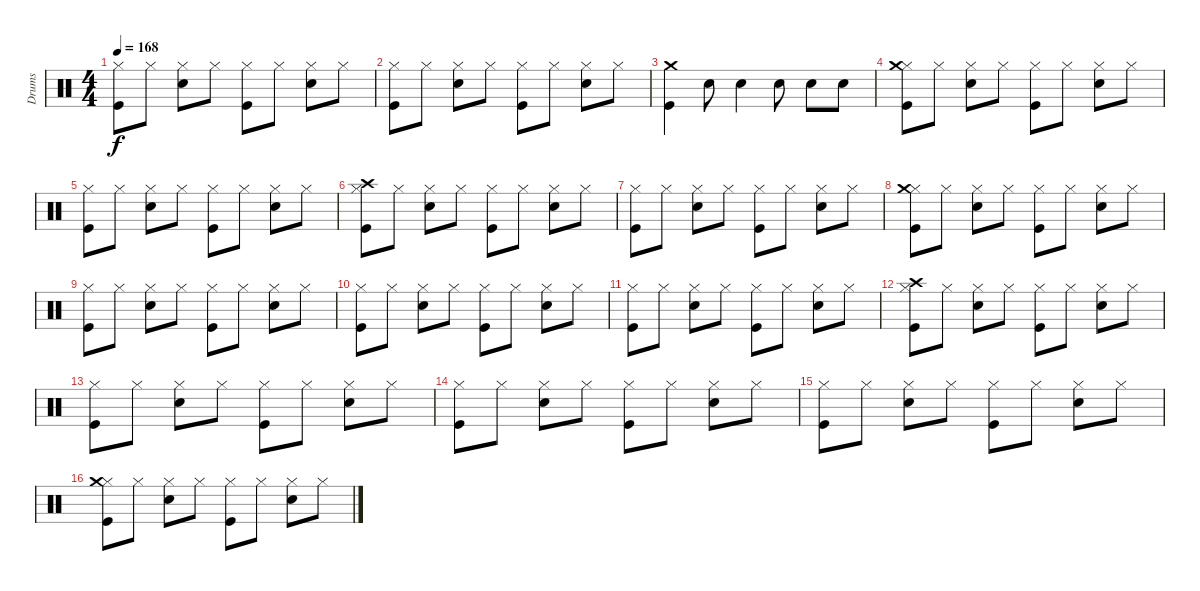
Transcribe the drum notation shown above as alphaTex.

\track ("Drums" "Drums") {instrument percussion}
\staff {score}
\articulation defaults
\ts (4 4)
\tempo 168
\clef neutral
\ks c
("Kick (hit)" "Hi-Hat (closed)").8{dy f} "Hi-Hat (closed)".8 ("Snare (hit) 2" "Hi-Hat (closed)").8 "Hi-Hat (closed)".8 ("Kick (hit)" "Hi-Hat (closed)").8 "Hi-Hat (closed)".8 ("Snare (hit) 2" "Hi-Hat (closed)").8 "Hi-Hat (closed)".8 |
("Kick (hit)" "Hi-Hat (closed)").8 "Hi-Hat (closed)".8 ("Snare (hit) 2" "Hi-Hat (closed)").8 "Hi-Hat (closed)".8 ("Kick (hit)" "Hi-Hat (closed)").8 "Hi-Hat (closed)".8 ("Snare (hit) 2" "Hi-Hat (closed)").8 "Hi-Hat (closed)".8 |
("Kick (hit)" "Crash medium (hit)").4 "Snare (hit) 2".8 "Snare (hit) 2".4 "Snare (hit) 2".8 "Snare (hit) 2".8 "Snare (hit) 2".8 |
("Kick (hit)" "Hi-Hat (closed)" "Crash medium (hit)").8 "Hi-Hat (closed)".8 ("Snare (hit) 2" "Hi-Hat (closed)").8 "Hi-Hat (closed)".8 ("Kick (hit)" "Hi-Hat (closed)").8 "Hi-Hat (closed)".8 ("Snare (hit) 2" "Hi-Hat (closed)").8 "Hi-Hat (closed)".8 |
("Kick (hit)" "Hi-Hat (closed)").8 "Hi-Hat (closed)".8 ("Snare (hit) 2" "Hi-Hat (closed)").8 "Hi-Hat (closed)".8 ("Kick (hit)" "Hi-Hat (closed)").8 "Hi-Hat (closed)".8 ("Snare (hit) 2" "Hi-Hat (closed)").8 "Hi-Hat (closed)".8 |
("Kick (hit)" "Hi-Hat (closed)" "Crash high (hit)").8 "Hi-Hat (closed)".8 ("Snare (hit) 2" "Hi-Hat (closed)").8 "Hi-Hat (closed)".8 ("Kick (hit)" "Hi-Hat (closed)").8 "Hi-Hat (closed)".8 ("Snare (hit) 2" "Hi-Hat (closed)").8 "Hi-Hat (closed)".8 |
("Kick (hit)" "Hi-Hat (closed)").8 "Hi-Hat (closed)".8 ("Snare (hit) 2" "Hi-Hat (closed)").8 "Hi-Hat (closed)".8 ("Kick (hit)" "Hi-Hat (closed)").8 "Hi-Hat (closed)".8 ("Snare (hit) 2" "Hi-Hat (closed)").8 "Hi-Hat (closed)".8 |
("Kick (hit)" "Hi-Hat (closed)" "Crash medium (hit)").8 "Hi-Hat (closed)".8 ("Snare (hit) 2" "Hi-Hat (closed)").8 "Hi-Hat (closed)".8 ("Kick (hit)" "Hi-Hat (closed)").8 "Hi-Hat (closed)".8 ("Snare (hit) 2" "Hi-Hat (closed)").8 "Hi-Hat (closed)".8 |
("Kick (hit)" "Hi-Hat (closed)").8 "Hi-Hat (closed)".8 ("Snare (hit) 2" "Hi-Hat (closed)").8 "Hi-Hat (closed)".8 ("Kick (hit)" "Hi-Hat (closed)").8 "Hi-Hat (closed)".8 ("Snare (hit) 2" "Hi-Hat (closed)").8 "Hi-Hat (closed)".8 |
("Kick (hit)" "Hi-Hat (closed)").8 "Hi-Hat (closed)".8 ("Snare (hit) 2" "Hi-Hat (closed)").8 "Hi-Hat (closed)".8 ("Kick (hit)" "Hi-Hat (closed)").8 "Hi-Hat (closed)".8 ("Snare (hit) 2" "Hi-Hat (closed)").8 "Hi-Hat (closed)".8 |
("Kick (hit)" "Hi-Hat (closed)").8 "Hi-Hat (closed)".8 ("Snare (hit) 2" "Hi-Hat (closed)").8 "Hi-Hat (closed)".8 ("Kick (hit)" "Hi-Hat (closed)").8 "Hi-Hat (closed)".8 ("Snare (hit) 2" "Hi-Hat (closed)").8 "Hi-Hat (closed)".8 |
("Kick (hit)" "Hi-Hat (closed)" "Crash high (hit)").8 "Hi-Hat (closed)".8 ("Snare (hit) 2" "Hi-Hat (closed)").8 "Hi-Hat (closed)".8 ("Kick (hit)" "Hi-Hat (closed)").8 "Hi-Hat (closed)".8 ("Snare (hit) 2" "Hi-Hat (closed)").8 "Hi-Hat (closed)".8 |
("Kick (hit)" "Hi-Hat (closed)").8 "Hi-Hat (closed)".8 ("Snare (hit) 2" "Hi-Hat (closed)").8 "Hi-Hat (closed)".8 ("Kick (hit)" "Hi-Hat (closed)").8 "Hi-Hat (closed)".8 ("Snare (hit) 2" "Hi-Hat (closed)").8 "Hi-Hat (closed)".8 |
("Kick (hit)" "Hi-Hat (closed)").8 "Hi-Hat (closed)".8 ("Snare (hit) 2" "Hi-Hat (closed)").8 "Hi-Hat (closed)".8 ("Kick (hit)" "Hi-Hat (closed)").8 "Hi-Hat (closed)".8 ("Snare (hit) 2" "Hi-Hat (closed)").8 "Hi-Hat (closed)".8 |
("Kick (hit)" "Hi-Hat (closed)").8 "Hi-Hat (closed)".8 ("Snare (hit) 2" "Hi-Hat (closed)").8 "Hi-Hat (closed)".8 ("Kick (hit)" "Hi-Hat (closed)").8 "Hi-Hat (closed)".8 ("Snare (hit) 2" "Hi-Hat (closed)").8 "Hi-Hat (closed)".8 |
("Kick (hit)" "Hi-Hat (closed)" "Crash medium (hit)").8 "Hi-Hat (closed)".8 ("Snare (hit) 2" "Hi-Hat (closed)").8 "Hi-Hat (closed)".8 ("Kick (hit)" "Hi-Hat (closed)").8 "Hi-Hat (closed)".8 ("Snare (hit) 2" "Hi-Hat (closed)").8 "Hi-Hat (closed)".8
